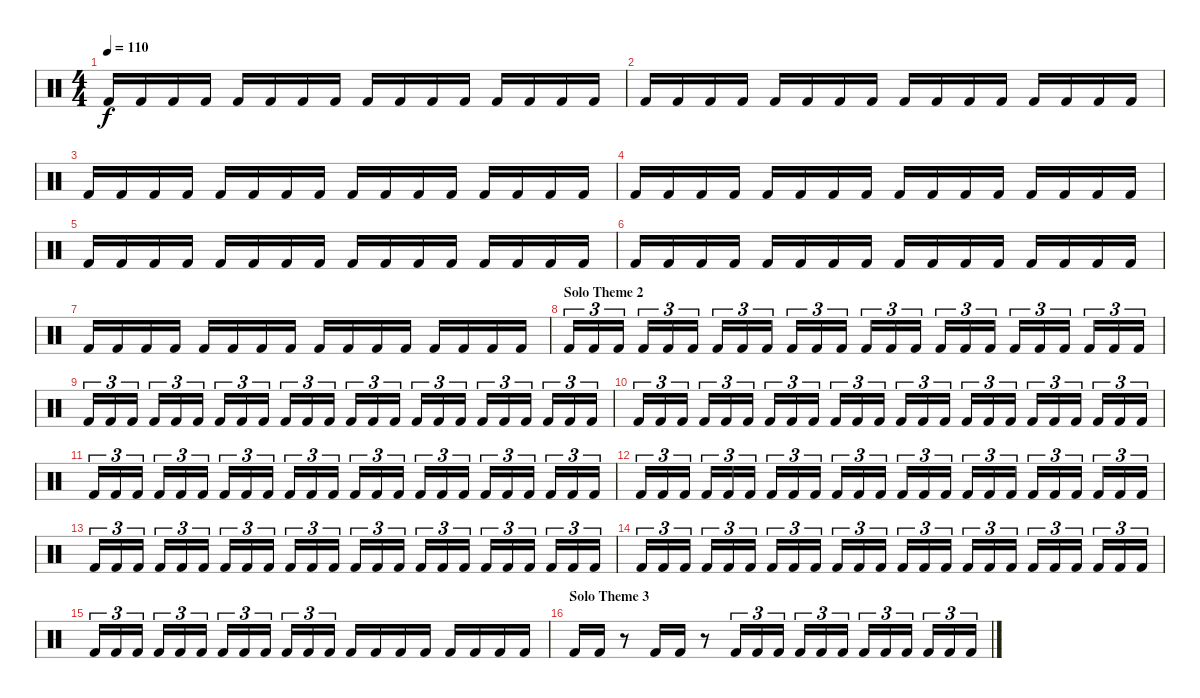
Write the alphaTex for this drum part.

\track "" {instrument percussion}
\staff {score}
\articulation defaults
\ts (4 4)
\tempo 110
\clef neutral
\ks c "Kick (hit) 2".16{dy f} "Kick (hit) 2".16 "Kick (hit) 2".16 "Kick (hit) 2".16 "Kick (hit) 2".16 "Kick (hit) 2".16 "Kick (hit) 2".16 "Kick (hit) 2".16 "Kick (hit) 2".16 "Kick (hit) 2".16 "Kick (hit) 2".16 "Kick (hit) 2".16 "Kick (hit) 2".16 "Kick (hit) 2".16 "Kick (hit) 2".16 "Kick (hit) 2".16
|
"Kick (hit) 2".16 "Kick (hit) 2".16 "Kick (hit) 2".16 "Kick (hit) 2".16 "Kick (hit) 2".16 "Kick (hit) 2".16 "Kick (hit) 2".16 "Kick (hit) 2".16 "Kick (hit) 2".16 "Kick (hit) 2".16 "Kick (hit) 2".16 "Kick (hit) 2".16 "Kick (hit) 2".16 "Kick (hit) 2".16 "Kick (hit) 2".16 "Kick (hit) 2".16 |
"Kick (hit) 2".16 "Kick (hit) 2".16 "Kick (hit) 2".16 "Kick (hit) 2".16 "Kick (hit) 2".16 "Kick (hit) 2".16 "Kick (hit) 2".16 "Kick (hit) 2".16 "Kick (hit) 2".16 "Kick (hit) 2".16 "Kick (hit) 2".16 "Kick (hit) 2".16 "Kick (hit) 2".16 "Kick (hit) 2".16 "Kick (hit) 2".16 "Kick (hit) 2".16 |
"Kick (hit) 2".16 "Kick (hit) 2".16 "Kick (hit) 2".16 "Kick (hit) 2".16 "Kick (hit) 2".16 "Kick (hit) 2".16 "Kick (hit) 2".16 "Kick (hit) 2".16 "Kick (hit) 2".16 "Kick (hit) 2".16 "Kick (hit) 2".16 "Kick (hit) 2".16 "Kick (hit) 2".16 "Kick (hit) 2".16 "Kick (hit) 2".16 "Kick (hit) 2".16 |
"Kick (hit) 2".16 "Kick (hit) 2".16 "Kick (hit) 2".16 "Kick (hit) 2".16 "Kick (hit) 2".16 "Kick (hit) 2".16 "Kick (hit) 2".16 "Kick (hit) 2".16 "Kick (hit) 2".16 "Kick (hit) 2".16 "Kick (hit) 2".16 "Kick (hit) 2".16 "Kick (hit) 2".16 "Kick (hit) 2".16 "Kick (hit) 2".16 "Kick (hit) 2".16 |
"Kick (hit) 2".16 "Kick (hit) 2".16 "Kick (hit) 2".16 "Kick (hit) 2".16 "Kick (hit) 2".16 "Kick (hit) 2".16 "Kick (hit) 2".16 "Kick (hit) 2".16 "Kick (hit) 2".16 "Kick (hit) 2".16 "Kick (hit) 2".16 "Kick (hit) 2".16 "Kick (hit) 2".16 "Kick (hit) 2".16 "Kick (hit) 2".16 "Kick (hit) 2".16 |
"Kick (hit) 2".16 "Kick (hit) 2".16 "Kick (hit) 2".16 "Kick (hit) 2".16 "Kick (hit) 2".16 "Kick (hit) 2".16 "Kick (hit) 2".16 "Kick (hit) 2".16 "Kick (hit) 2".16 "Kick (hit) 2".16 "Kick (hit) 2".16 "Kick (hit) 2".16 "Kick (hit) 2".16 "Kick (hit) 2".16 "Kick (hit) 2".16 "Kick (hit) 2".16 |
\section ("" "Solo Theme 2")
"Kick (hit) 2".16{tu (3 2)} "Kick (hit) 2".16{tu (3 2)} "Kick (hit) 2".16{tu (3 2)} "Kick (hit) 2".16{tu (3 2)} "Kick (hit) 2".16{tu (3 2)} "Kick (hit) 2".16{tu (3 2)} "Kick (hit) 2".16{tu (3 2)} "Kick (hit) 2".16{tu (3 2)} "Kick (hit) 2".16{tu (3 2)} "Kick (hit) 2".16{tu (3 2)} "Kick (hit) 2".16{tu (3 2)} "Kick (hit) 2".16{tu (3 2)} "Kick (hit) 2".16{tu (3 2)} "Kick (hit) 2".16{tu (3 2)} "Kick (hit) 2".16{tu (3 2)} "Kick (hit) 2".16{tu (3 2)} "Kick (hit) 2".16{tu (3 2)} "Kick (hit) 2".16{tu (3 2)} "Kick (hit) 2".16{tu (3 2)} "Kick (hit) 2".16{tu (3 2)} "Kick (hit) 2".16{tu (3 2)} "Kick (hit) 2".16{tu (3 2)} "Kick (hit) 2".16{tu (3 2)} "Kick (hit) 2".16{tu (3 2)} |
"Kick (hit) 2".16{tu (3 2)} "Kick (hit) 2".16{tu (3 2)} "Kick (hit) 2".16{tu (3 2)} "Kick (hit) 2".16{tu (3 2)} "Kick (hit) 2".16{tu (3 2)} "Kick (hit) 2".16{tu (3 2)} "Kick (hit) 2".16{tu (3 2)} "Kick (hit) 2".16{tu (3 2)} "Kick (hit) 2".16{tu (3 2)} "Kick (hit) 2".16{tu (3 2)} "Kick (hit) 2".16{tu (3 2)} "Kick (hit) 2".16{tu (3 2)} "Kick (hit) 2".16{tu (3 2)} "Kick (hit) 2".16{tu (3 2)} "Kick (hit) 2".16{tu (3 2)} "Kick (hit) 2".16{tu (3 2)} "Kick (hit) 2".16{tu (3 2)} "Kick (hit) 2".16{tu (3 2)} "Kick (hit) 2".16{tu (3 2)} "Kick (hit) 2".16{tu (3 2)} "Kick (hit) 2".16{tu (3 2)} "Kick (hit) 2".16{tu (3 2)} "Kick (hit) 2".16{tu (3 2)} "Kick (hit) 2".16{tu (3 2)} |
"Kick (hit) 2".16{tu (3 2)} "Kick (hit) 2".16{tu (3 2)} "Kick (hit) 2".16{tu (3 2)} "Kick (hit) 2".16{tu (3 2)} "Kick (hit) 2".16{tu (3 2)} "Kick (hit) 2".16{tu (3 2)} "Kick (hit) 2".16{tu (3 2)} "Kick (hit) 2".16{tu (3 2)} "Kick (hit) 2".16{tu (3 2)} "Kick (hit) 2".16{tu (3 2)} "Kick (hit) 2".16{tu (3 2)} "Kick (hit) 2".16{tu (3 2)} "Kick (hit) 2".16{tu (3 2)} "Kick (hit) 2".16{tu (3 2)} "Kick (hit) 2".16{tu (3 2)} "Kick (hit) 2".16{tu (3 2)} "Kick (hit) 2".16{tu (3 2)} "Kick (hit) 2".16{tu (3 2)} "Kick (hit) 2".16{tu (3 2)} "Kick (hit) 2".16{tu (3 2)} "Kick (hit) 2".16{tu (3 2)} "Kick (hit) 2".16{tu (3 2)} "Kick (hit) 2".16{tu (3 2)} "Kick (hit) 2".16{tu (3 2)} |
"Kick (hit) 2".16{tu (3 2)} "Kick (hit) 2".16{tu (3 2)} "Kick (hit) 2".16{tu (3 2)} "Kick (hit) 2".16{tu (3 2)} "Kick (hit) 2".16{tu (3 2)} "Kick (hit) 2".16{tu (3 2)} "Kick (hit) 2".16{tu (3 2)} "Kick (hit) 2".16{tu (3 2)} "Kick (hit) 2".16{tu (3 2)} "Kick (hit) 2".16{tu (3 2)} "Kick (hit) 2".16{tu (3 2)} "Kick (hit) 2".16{tu (3 2)} "Kick (hit) 2".16{tu (3 2)} "Kick (hit) 2".16{tu (3 2)} "Kick (hit) 2".16{tu (3 2)} "Kick (hit) 2".16{tu (3 2)} "Kick (hit) 2".16{tu (3 2)} "Kick (hit) 2".16{tu (3 2)} "Kick (hit) 2".16{tu (3 2)} "Kick (hit) 2".16{tu (3 2)} "Kick (hit) 2".16{tu (3 2)} "Kick (hit) 2".16{tu (3 2)} "Kick (hit) 2".16{tu (3 2)} "Kick (hit) 2".16{tu (3 2)} |
"Kick (hit) 2".16{tu (3 2)} "Kick (hit) 2".16{tu (3 2)} "Kick (hit) 2".16{tu (3 2)} "Kick (hit) 2".16{tu (3 2)} "Kick (hit) 2".16{tu (3 2)} "Kick (hit) 2".16{tu (3 2)} "Kick (hit) 2".16{tu (3 2)} "Kick (hit) 2".16{tu (3 2)} "Kick (hit) 2".16{tu (3 2)} "Kick (hit) 2".16{tu (3 2)} "Kick (hit) 2".16{tu (3 2)} "Kick (hit) 2".16{tu (3 2)} "Kick (hit) 2".16{tu (3 2)} "Kick (hit) 2".16{tu (3 2)} "Kick (hit) 2".16{tu (3 2)} "Kick (hit) 2".16{tu (3 2)} "Kick (hit) 2".16{tu (3 2)} "Kick (hit) 2".16{tu (3 2)} "Kick (hit) 2".16{tu (3 2)} "Kick (hit) 2".16{tu (3 2)} "Kick (hit) 2".16{tu (3 2)} "Kick (hit) 2".16{tu (3 2)} "Kick (hit) 2".16{tu (3 2)} "Kick (hit) 2".16{tu (3 2)} |
"Kick (hit) 2".16{tu (3 2)} "Kick (hit) 2".16{tu (3 2)} "Kick (hit) 2".16{tu (3 2)} "Kick (hit) 2".16{tu (3 2)} "Kick (hit) 2".16{tu (3 2)} "Kick (hit) 2".16{tu (3 2)} "Kick (hit) 2".16{tu (3 2)} "Kick (hit) 2".16{tu (3 2)} "Kick (hit) 2".16{tu (3 2)} "Kick (hit) 2".16{tu (3 2)} "Kick (hit) 2".16{tu (3 2)} "Kick (hit) 2".16{tu (3 2)} "Kick (hit) 2".16{tu (3 2)} "Kick (hit) 2".16{tu (3 2)} "Kick (hit) 2".16{tu (3 2)} "Kick (hit) 2".16{tu (3 2)} "Kick (hit) 2".16{tu (3 2)} "Kick (hit) 2".16{tu (3 2)} "Kick (hit) 2".16{tu (3 2)} "Kick (hit) 2".16{tu (3 2)} "Kick (hit) 2".16{tu (3 2)} "Kick (hit) 2".16{tu (3 2)} "Kick (hit) 2".16{tu (3 2)} "Kick (hit) 2".16{tu (3 2)} |
"Kick (hit) 2".16{tu (3 2)} "Kick (hit) 2".16{tu (3 2)} "Kick (hit) 2".16{tu (3 2)} "Kick (hit) 2".16{tu (3 2)} "Kick (hit) 2".16{tu (3 2)} "Kick (hit) 2".16{tu (3 2)} "Kick (hit) 2".16{tu (3 2)} "Kick (hit) 2".16{tu (3 2)} "Kick (hit) 2".16{tu (3 2)} "Kick (hit) 2".16{tu (3 2)} "Kick (hit) 2".16{tu (3 2)} "Kick (hit) 2".16{tu (3 2)} "Kick (hit) 2".16{tu (3 2)} "Kick (hit) 2".16{tu (3 2)} "Kick (hit) 2".16{tu (3 2)} "Kick (hit) 2".16{tu (3 2)} "Kick (hit) 2".16{tu (3 2)} "Kick (hit) 2".16{tu (3 2)} "Kick (hit) 2".16{tu (3 2)} "Kick (hit) 2".16{tu (3 2)} "Kick (hit) 2".16{tu (3 2)} "Kick (hit) 2".16{tu (3 2)} "Kick (hit) 2".16{tu (3 2)} "Kick (hit) 2".16{tu (3 2)} |
"Kick (hit) 2".16{tu (3 2)} "Kick (hit) 2".16{tu (3 2)} "Kick (hit) 2".16{tu (3 2)} "Kick (hit) 2".16{tu (3 2)} "Kick (hit) 2".16{tu (3 2)} "Kick (hit) 2".16{tu (3 2)} "Kick (hit) 2".16{tu (3 2)} "Kick (hit) 2".16{tu (3 2)} "Kick (hit) 2".16{tu (3 2)} "Kick (hit) 2".16{tu (3 2)} "Kick (hit) 2".16{tu (3 2)} "Kick (hit) 2".16{tu (3 2)} "Kick (hit) 2".16 "Kick (hit) 2".16 "Kick (hit) 2".16 "Kick (hit) 2".16 "Kick (hit) 2".16 "Kick (hit) 2".16 "Kick (hit) 2".16 "Kick (hit) 2".16 |
\section ("" "Solo Theme 3")
"Kick (hit) 2".16 "Kick (hit) 2".16 r.8 "Kick (hit) 2".16 "Kick (hit) 2".16 r.8 "Kick (hit) 2".16{tu (3 2)} "Kick (hit) 2".16{tu (3 2)} "Kick (hit) 2".16{tu (3 2)} "Kick (hit) 2".16{tu (3 2)} "Kick (hit) 2".16{tu (3 2)} "Kick (hit) 2".16{tu (3 2)} "Kick (hit) 2".16{tu (3 2)} "Kick (hit) 2".16{tu (3 2)} "Kick (hit) 2".16{tu (3 2)} "Kick (hit) 2".16{tu (3 2)} "Kick (hit) 2".16{tu (3 2)} "Kick (hit) 2".16{tu (3 2)}
